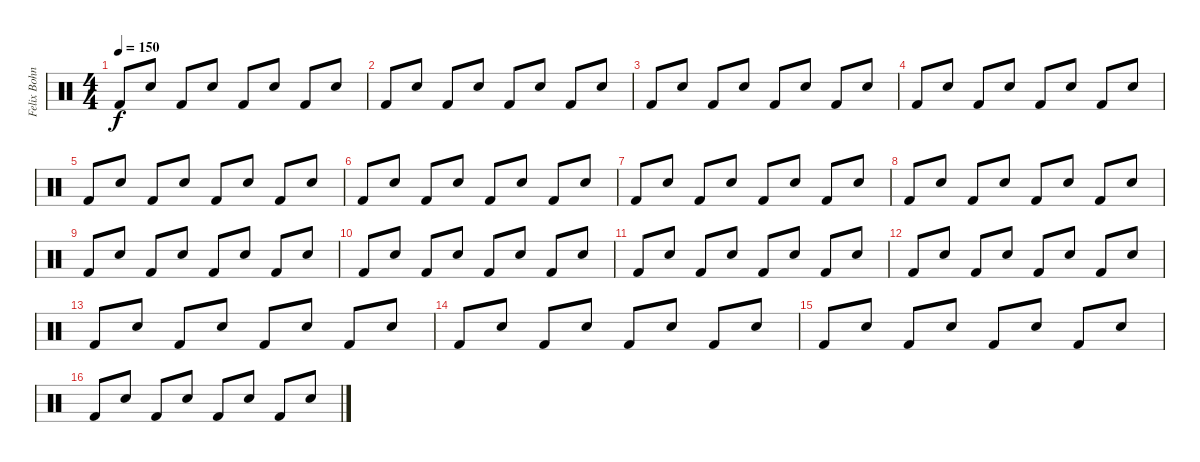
\track ("Felix Bohnke - Drums" "Felix Bohn") {mute instrument percussion}
\staff {score}
\articulation defaults
\ts (4 4)
\tempo 150
\clef neutral
\ks c "Kick (hit) 2".8{dy f} "Snare (hit) 2".8 "Kick (hit) 2".8 "Snare (hit) 2".8 "Kick (hit) 2".8 "Snare (hit) 2".8 "Kick (hit) 2".8 "Snare (hit) 2".8
|
"Kick (hit) 2".8 "Snare (hit) 2".8 "Kick (hit) 2".8 "Snare (hit) 2".8 "Kick (hit) 2".8 "Snare (hit) 2".8 "Kick (hit) 2".8 "Snare (hit) 2".8 |
"Kick (hit) 2".8 "Snare (hit) 2".8 "Kick (hit) 2".8 "Snare (hit) 2".8 "Kick (hit) 2".8 "Snare (hit) 2".8 "Kick (hit) 2".8 "Snare (hit) 2".8 |
"Kick (hit) 2".8 "Snare (hit) 2".8 "Kick (hit) 2".8 "Snare (hit) 2".8 "Kick (hit) 2".8 "Snare (hit) 2".8 "Kick (hit) 2".8 "Snare (hit) 2".8 |
"Kick (hit) 2".8 "Snare (hit) 2".8 "Kick (hit) 2".8 "Snare (hit) 2".8 "Kick (hit) 2".8 "Snare (hit) 2".8 "Kick (hit) 2".8 "Snare (hit) 2".8 |
"Kick (hit) 2".8 "Snare (hit) 2".8 "Kick (hit) 2".8 "Snare (hit) 2".8 "Kick (hit) 2".8 "Snare (hit) 2".8 "Kick (hit) 2".8 "Snare (hit) 2".8 |
"Kick (hit) 2".8 "Snare (hit) 2".8 "Kick (hit) 2".8 "Snare (hit) 2".8 "Kick (hit) 2".8 "Snare (hit) 2".8 "Kick (hit) 2".8 "Snare (hit) 2".8 |
"Kick (hit) 2".8 "Snare (hit) 2".8 "Kick (hit) 2".8 "Snare (hit) 2".8 "Kick (hit) 2".8 "Snare (hit) 2".8 "Kick (hit) 2".8 "Snare (hit) 2".8 |
"Kick (hit) 2".8 "Snare (hit) 2".8 "Kick (hit) 2".8 "Snare (hit) 2".8 "Kick (hit) 2".8 "Snare (hit) 2".8 "Kick (hit) 2".8 "Snare (hit) 2".8 |
"Kick (hit) 2".8 "Snare (hit) 2".8 "Kick (hit) 2".8 "Snare (hit) 2".8 "Kick (hit) 2".8 "Snare (hit) 2".8 "Kick (hit) 2".8 "Snare (hit) 2".8 |
"Kick (hit) 2".8 "Snare (hit) 2".8 "Kick (hit) 2".8 "Snare (hit) 2".8 "Kick (hit) 2".8 "Snare (hit) 2".8 "Kick (hit) 2".8 "Snare (hit) 2".8 |
"Kick (hit) 2".8 "Snare (hit) 2".8 "Kick (hit) 2".8 "Snare (hit) 2".8 "Kick (hit) 2".8 "Snare (hit) 2".8 "Kick (hit) 2".8 "Snare (hit) 2".8 |
"Kick (hit) 2".8 "Snare (hit) 2".8 "Kick (hit) 2".8 "Snare (hit) 2".8 "Kick (hit) 2".8 "Snare (hit) 2".8 "Kick (hit) 2".8 "Snare (hit) 2".8 |
"Kick (hit) 2".8 "Snare (hit) 2".8 "Kick (hit) 2".8 "Snare (hit) 2".8 "Kick (hit) 2".8 "Snare (hit) 2".8 "Kick (hit) 2".8 "Snare (hit) 2".8 |
"Kick (hit) 2".8 "Snare (hit) 2".8 "Kick (hit) 2".8 "Snare (hit) 2".8 "Kick (hit) 2".8 "Snare (hit) 2".8 "Kick (hit) 2".8 "Snare (hit) 2".8 |
"Kick (hit) 2".8 "Snare (hit) 2".8 "Kick (hit) 2".8 "Snare (hit) 2".8 "Kick (hit) 2".8 "Snare (hit) 2".8 "Kick (hit) 2".8 "Snare (hit) 2".8
